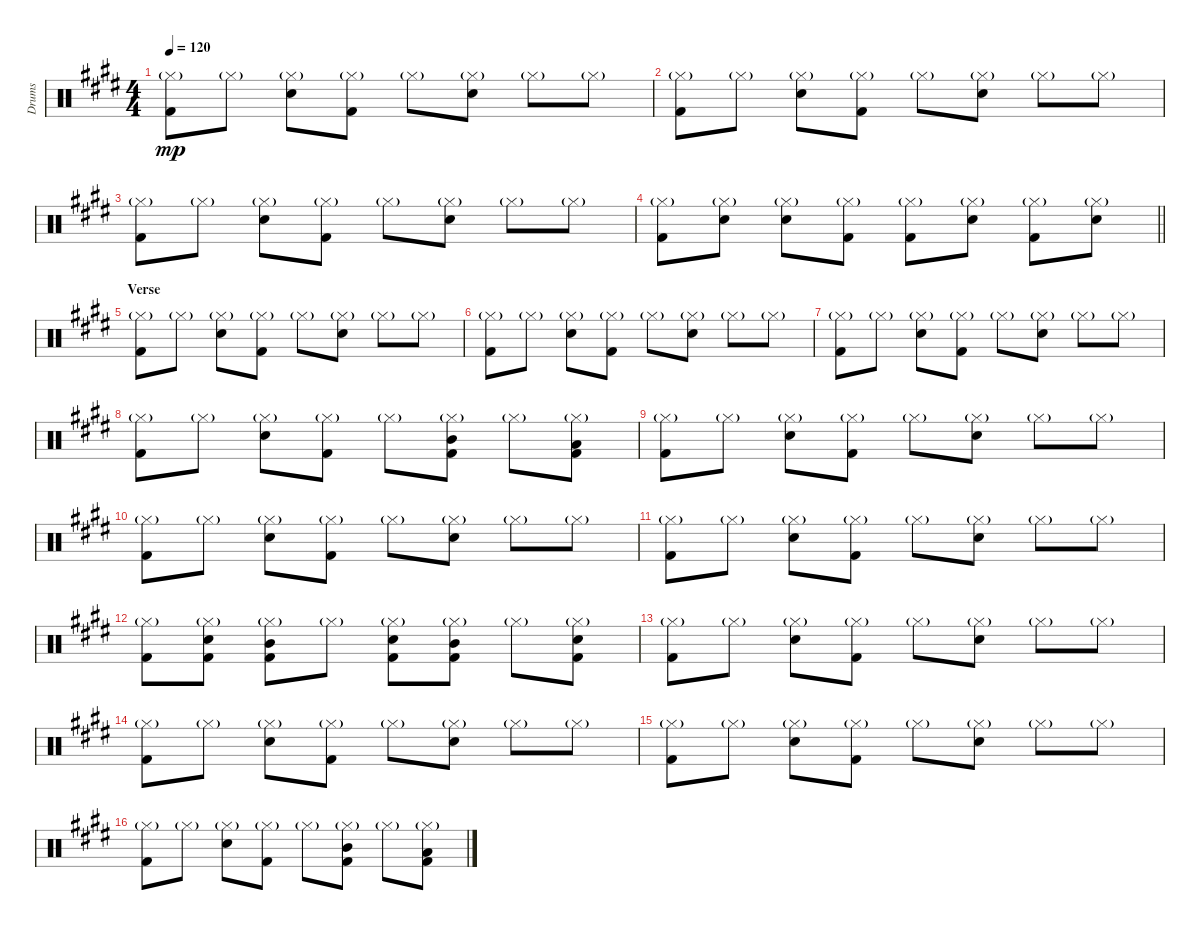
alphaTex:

\track ("Drums" "Drums") {instrument percussion}
\staff {score}
\articulation defaults
\ts (4 4)
\tempo 120
\clef neutral
\ks e
("Hi-Hat (closed)"{g} "Kick (hit) 2").8{dy mp} "Hi-Hat (closed)"{g}.8 ("Hi-Hat (closed)"{g} "Snare (hit) 2").8 ("Hi-Hat (closed)"{g} "Kick (hit) 2").8 "Hi-Hat (closed)"{g}.8 ("Hi-Hat (closed)"{g} "Snare (hit) 2").8 "Hi-Hat (closed)"{g}.8 "Hi-Hat (closed)"{g}.8 |
("Hi-Hat (closed)"{g} "Kick (hit) 2").8 "Hi-Hat (closed)"{g}.8 ("Hi-Hat (closed)"{g} "Snare (hit) 2").8 ("Hi-Hat (closed)"{g} "Kick (hit) 2").8 "Hi-Hat (closed)"{g}.8 ("Hi-Hat (closed)"{g} "Snare (hit) 2").8 "Hi-Hat (closed)"{g}.8 "Hi-Hat (closed)"{g}.8 |
("Hi-Hat (closed)"{g} "Kick (hit) 2").8 "Hi-Hat (closed)"{g}.8 ("Hi-Hat (closed)"{g} "Snare (hit) 2").8 ("Hi-Hat (closed)"{g} "Kick (hit) 2").8 "Hi-Hat (closed)"{g}.8 ("Hi-Hat (closed)"{g} "Snare (hit) 2").8 "Hi-Hat (closed)"{g}.8 "Hi-Hat (closed)"{g}.8 |
\barLineRight lightlight
("Hi-Hat (closed)"{g} "Kick (hit) 2").8 ("Hi-Hat (closed)"{g} "Snare (hit) 2").8 ("Hi-Hat (closed)"{g} "Snare (hit) 2").8 ("Hi-Hat (closed)"{g} "Kick (hit) 2").8 ("Hi-Hat (closed)"{g} "Kick (hit) 2").8 ("Hi-Hat (closed)"{g} "Snare (hit) 2").8 ("Hi-Hat (closed)"{g} "Kick (hit) 2").8 ("Hi-Hat (closed)"{g} "Snare (hit) 2").8 |
\section ("" "Verse")
("Hi-Hat (closed)"{g} "Kick (hit) 2").8 "Hi-Hat (closed)"{g}.8 ("Hi-Hat (closed)"{g} "Snare (hit) 2").8 ("Hi-Hat (closed)"{g} "Kick (hit) 2").8 "Hi-Hat (closed)"{g}.8 ("Hi-Hat (closed)"{g} "Snare (hit) 2").8 "Hi-Hat (closed)"{g}.8 "Hi-Hat (closed)"{g}.8 |
("Hi-Hat (closed)"{g} "Kick (hit) 2").8 "Hi-Hat (closed)"{g}.8 ("Hi-Hat (closed)"{g} "Snare (hit) 2").8 ("Hi-Hat (closed)"{g} "Kick (hit) 2").8 "Hi-Hat (closed)"{g}.8 ("Hi-Hat (closed)"{g} "Snare (hit) 2").8 "Hi-Hat (closed)"{g}.8 "Hi-Hat (closed)"{g}.8 |
("Hi-Hat (closed)"{g} "Kick (hit) 2").8 "Hi-Hat (closed)"{g}.8 ("Hi-Hat (closed)"{g} "Snare (hit) 2").8 ("Hi-Hat (closed)"{g} "Kick (hit) 2").8 "Hi-Hat (closed)"{g}.8 ("Hi-Hat (closed)"{g} "Snare (hit) 2").8 "Hi-Hat (closed)"{g}.8 "Hi-Hat (closed)"{g}.8 |
("Hi-Hat (closed)"{g} "Kick (hit) 2").8 "Hi-Hat (closed)"{g}.8 ("Hi-Hat (closed)"{g} "Snare (hit) 2").8 ("Hi-Hat (closed)"{g} "Kick (hit) 2").8 "Hi-Hat (closed)"{g}.8 ("Hi-Hat (closed)"{g} "Mid Tom (hit)" "Kick (hit) 2").8 "Hi-Hat (closed)"{g}.8 ("Hi-Hat (closed)"{g} "Low Tom (hit)" "Kick (hit) 2").8 |
("Hi-Hat (closed)"{g} "Kick (hit) 2").8 "Hi-Hat (closed)"{g}.8 ("Hi-Hat (closed)"{g} "Snare (hit) 2").8 ("Hi-Hat (closed)"{g} "Kick (hit) 2").8 "Hi-Hat (closed)"{g}.8 ("Hi-Hat (closed)"{g} "Snare (hit) 2").8 "Hi-Hat (closed)"{g}.8 "Hi-Hat (closed)"{g}.8 |
("Hi-Hat (closed)"{g} "Kick (hit) 2").8 "Hi-Hat (closed)"{g}.8 ("Hi-Hat (closed)"{g} "Snare (hit) 2").8 ("Hi-Hat (closed)"{g} "Kick (hit) 2").8 "Hi-Hat (closed)"{g}.8 ("Hi-Hat (closed)"{g} "Snare (hit) 2").8 "Hi-Hat (closed)"{g}.8 "Hi-Hat (closed)"{g}.8 |
("Hi-Hat (closed)"{g} "Kick (hit) 2").8 "Hi-Hat (closed)"{g}.8 ("Hi-Hat (closed)"{g} "Snare (hit) 2").8 ("Hi-Hat (closed)"{g} "Kick (hit) 2").8 "Hi-Hat (closed)"{g}.8 ("Hi-Hat (closed)"{g} "Snare (hit) 2").8 "Hi-Hat (closed)"{g}.8 "Hi-Hat (closed)"{g}.8 |
("Hi-Hat (closed)"{g} "Kick (hit) 2").8 ("Hi-Hat (closed)"{g} "Snare (hit) 2" "Kick (hit) 2").8 ("Hi-Hat (closed)"{g} "Mid Tom (hit)" "Kick (hit) 2").8 "Hi-Hat (closed)"{g}.8 ("Hi-Hat (closed)"{g} "Snare (hit) 2" "Kick (hit) 2").8 ("Hi-Hat (closed)"{g} "Mid Tom (hit)" "Kick (hit) 2").8 "Hi-Hat (closed)"{g}.8 ("Hi-Hat (closed)"{g} "Snare (hit) 2" "Kick (hit) 2").8 |
("Hi-Hat (closed)"{g} "Kick (hit) 2").8 "Hi-Hat (closed)"{g}.8 ("Hi-Hat (closed)"{g} "Snare (hit) 2").8 ("Hi-Hat (closed)"{g} "Kick (hit) 2").8 "Hi-Hat (closed)"{g}.8 ("Hi-Hat (closed)"{g} "Snare (hit) 2").8 "Hi-Hat (closed)"{g}.8 "Hi-Hat (closed)"{g}.8 |
("Hi-Hat (closed)"{g} "Kick (hit) 2").8 "Hi-Hat (closed)"{g}.8 ("Hi-Hat (closed)"{g} "Snare (hit) 2").8 ("Hi-Hat (closed)"{g} "Kick (hit) 2").8 "Hi-Hat (closed)"{g}.8 ("Hi-Hat (closed)"{g} "Snare (hit) 2").8 "Hi-Hat (closed)"{g}.8 "Hi-Hat (closed)"{g}.8 |
("Hi-Hat (closed)"{g} "Kick (hit) 2").8 "Hi-Hat (closed)"{g}.8 ("Hi-Hat (closed)"{g} "Snare (hit) 2").8 ("Hi-Hat (closed)"{g} "Kick (hit) 2").8 "Hi-Hat (closed)"{g}.8 ("Hi-Hat (closed)"{g} "Snare (hit) 2").8 "Hi-Hat (closed)"{g}.8 "Hi-Hat (closed)"{g}.8 |
("Hi-Hat (closed)"{g} "Kick (hit) 2").8 "Hi-Hat (closed)"{g}.8 ("Hi-Hat (closed)"{g} "Snare (hit) 2").8 ("Hi-Hat (closed)"{g} "Kick (hit) 2").8 "Hi-Hat (closed)"{g}.8 ("Hi-Hat (closed)"{g} "Mid Tom (hit)" "Kick (hit) 2").8 "Hi-Hat (closed)"{g}.8 ("Hi-Hat (closed)"{g} "Low Tom (hit)" "Kick (hit) 2").8
